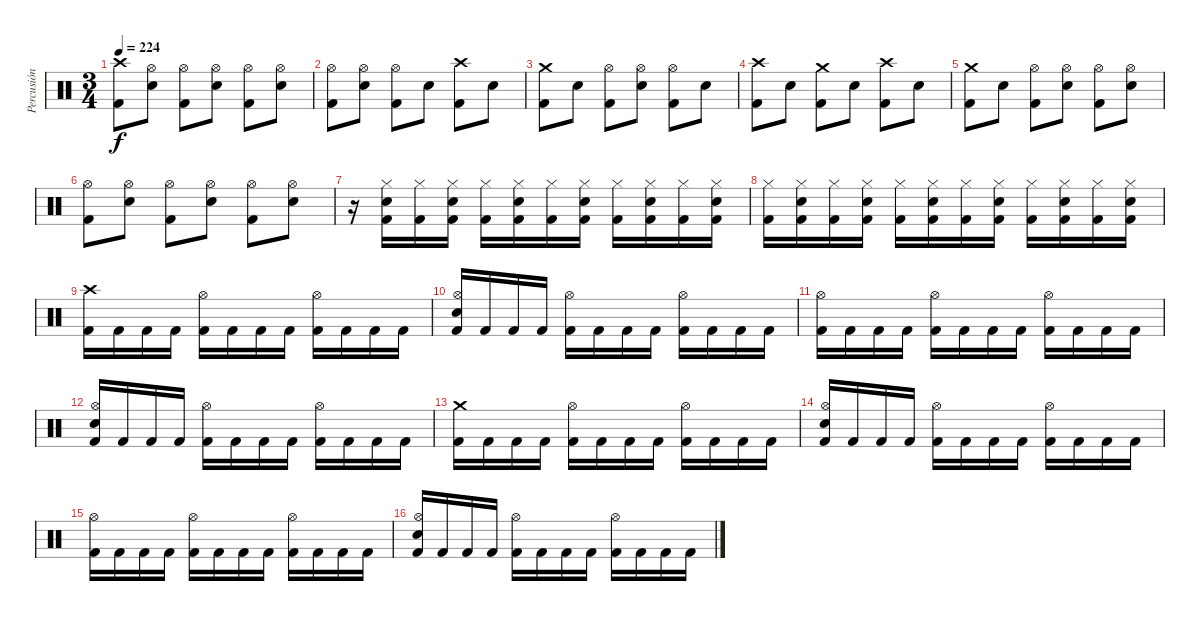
\track ("Percusión" "Percusión") {instrument percussion}
\staff {score}
\articulation defaults
\ts (3 4)
\tempo 224
\clef neutral
\ks c
("Crash high (hit)" "Kick (hit) 2").8{dy f} ("Hi-Hat (open)" "Electric Snare (hit)").8 ("Hi-Hat (open)" "Kick (hit) 2").8 ("Hi-Hat (open)" "Electric Snare (hit)").8 ("Hi-Hat (open)" "Kick (hit) 2").8 ("Hi-Hat (open)" "Electric Snare (hit)").8 |
("Hi-Hat (open)" "Kick (hit) 2").8 ("Hi-Hat (open)" "Electric Snare (hit)").8 ("Hi-Hat (open)" "Kick (hit) 2").8 "Electric Snare (hit)".8 ("Crash high (hit)" "Kick (hit) 2").8 "Electric Snare (hit)".8 |
("Crash medium (hit)" "Kick (hit) 2").8 "Electric Snare (hit)".8 ("Hi-Hat (open)" "Kick (hit) 2").8 ("Hi-Hat (open)" "Electric Snare (hit)").8 ("Hi-Hat (open)" "Kick (hit) 2").8 "Electric Snare (hit)".8 |
("Crash high (hit)" "Kick (hit) 2").8 "Electric Snare (hit)".8 ("Crash medium (hit)" "Kick (hit) 2").8 "Electric Snare (hit)".8 ("Crash high (hit)" "Kick (hit) 2").8 "Electric Snare (hit)".8 |
("Crash medium (hit)" "Kick (hit) 2").8 "Electric Snare (hit)".8 ("Hi-Hat (open)" "Kick (hit) 2").8 ("Hi-Hat (open)" "Electric Snare (hit)").8 ("Hi-Hat (open)" "Kick (hit) 2").8 ("Hi-Hat (open)" "Electric Snare (hit)").8 |
("Hi-Hat (open)" "Kick (hit) 2").8 ("Hi-Hat (open)" "Electric Snare (hit)").8 ("Hi-Hat (open)" "Kick (hit) 2").8 ("Hi-Hat (open)" "Electric Snare (hit)").8 ("Hi-Hat (open)" "Kick (hit) 2").8 ("Hi-Hat (open)" "Electric Snare (hit)").8 |
r.16 ("Hi-Hat (closed)" "Electric Snare (hit)" "Kick (hit) 2").16 ("Hi-Hat (closed)" "Kick (hit) 2").16 ("Hi-Hat (closed)" "Electric Snare (hit)" "Kick (hit) 2").16 ("Hi-Hat (closed)" "Kick (hit) 2").16 ("Hi-Hat (closed)" "Electric Snare (hit)" "Kick (hit) 2").16 ("Hi-Hat (closed)" "Kick (hit) 2").16 ("Hi-Hat (closed)" "Electric Snare (hit)" "Kick (hit) 2").16 ("Hi-Hat (closed)" "Kick (hit) 2").16 ("Hi-Hat (closed)" "Electric Snare (hit)" "Kick (hit) 2").16 ("Hi-Hat (closed)" "Kick (hit) 2").16 ("Hi-Hat (closed)" "Electric Snare (hit)" "Kick (hit) 2").16 |
("Hi-Hat (closed)" "Kick (hit) 2").16 ("Hi-Hat (closed)" "Electric Snare (hit)" "Kick (hit) 2").16 ("Hi-Hat (closed)" "Kick (hit) 2").16 ("Hi-Hat (closed)" "Electric Snare (hit)" "Kick (hit) 2").16 ("Hi-Hat (closed)" "Kick (hit) 2").16 ("Hi-Hat (closed)" "Electric Snare (hit)" "Kick (hit) 2").16 ("Hi-Hat (closed)" "Kick (hit) 2").16 ("Hi-Hat (closed)" "Electric Snare (hit)" "Kick (hit) 2").16 ("Hi-Hat (closed)" "Kick (hit) 2").16 ("Hi-Hat (closed)" "Electric Snare (hit)" "Kick (hit) 2").16 ("Hi-Hat (closed)" "Kick (hit) 2").16 ("Hi-Hat (closed)" "Electric Snare (hit)" "Kick (hit) 2").16 |
("Crash high (hit)" "Kick (hit) 2").16 "Kick (hit) 2".16 "Kick (hit) 2".16 "Kick (hit) 2".16 ("Hi-Hat (open)" "Kick (hit) 2").16 "Kick (hit) 2".16 "Kick (hit) 2".16 "Kick (hit) 2".16 ("Hi-Hat (open)" "Kick (hit) 2").16 "Kick (hit) 2".16 "Kick (hit) 2".16 "Kick (hit) 2".16 |
("Hi-Hat (open)" "Electric Snare (hit)" "Kick (hit) 2").16 "Kick (hit) 2".16 "Kick (hit) 2".16 "Kick (hit) 2".16 ("Hi-Hat (open)" "Kick (hit) 2").16 "Kick (hit) 2".16 "Kick (hit) 2".16 "Kick (hit) 2".16 ("Hi-Hat (open)" "Kick (hit) 2").16 "Kick (hit) 2".16 "Kick (hit) 2".16 "Kick (hit) 2".16 |
("Hi-Hat (open)" "Kick (hit) 2").16 "Kick (hit) 2".16 "Kick (hit) 2".16 "Kick (hit) 2".16 ("Hi-Hat (open)" "Kick (hit) 2").16 "Kick (hit) 2".16 "Kick (hit) 2".16 "Kick (hit) 2".16 ("Hi-Hat (open)" "Kick (hit) 2").16 "Kick (hit) 2".16 "Kick (hit) 2".16 "Kick (hit) 2".16 |
("Hi-Hat (open)" "Electric Snare (hit)" "Kick (hit) 2").16 "Kick (hit) 2".16 "Kick (hit) 2".16 "Kick (hit) 2".16 ("Hi-Hat (open)" "Kick (hit) 2").16 "Kick (hit) 2".16 "Kick (hit) 2".16 "Kick (hit) 2".16 ("Hi-Hat (open)" "Kick (hit) 2").16 "Kick (hit) 2".16 "Kick (hit) 2".16 "Kick (hit) 2".16 |
("Crash medium (hit)" "Kick (hit) 2").16 "Kick (hit) 2".16 "Kick (hit) 2".16 "Kick (hit) 2".16 ("Hi-Hat (open)" "Kick (hit) 2").16 "Kick (hit) 2".16 "Kick (hit) 2".16 "Kick (hit) 2".16 ("Hi-Hat (open)" "Kick (hit) 2").16 "Kick (hit) 2".16 "Kick (hit) 2".16 "Kick (hit) 2".16 |
("Hi-Hat (open)" "Electric Snare (hit)" "Kick (hit) 2").16 "Kick (hit) 2".16 "Kick (hit) 2".16 "Kick (hit) 2".16 ("Hi-Hat (open)" "Kick (hit) 2").16 "Kick (hit) 2".16 "Kick (hit) 2".16 "Kick (hit) 2".16 ("Hi-Hat (open)" "Kick (hit) 2").16 "Kick (hit) 2".16 "Kick (hit) 2".16 "Kick (hit) 2".16 |
("Hi-Hat (open)" "Kick (hit) 2").16 "Kick (hit) 2".16 "Kick (hit) 2".16 "Kick (hit) 2".16 ("Hi-Hat (open)" "Kick (hit) 2").16 "Kick (hit) 2".16 "Kick (hit) 2".16 "Kick (hit) 2".16 ("Hi-Hat (open)" "Kick (hit) 2").16 "Kick (hit) 2".16 "Kick (hit) 2".16 "Kick (hit) 2".16 |
("Hi-Hat (open)" "Electric Snare (hit)" "Kick (hit) 2").16 "Kick (hit) 2".16 "Kick (hit) 2".16 "Kick (hit) 2".16 ("Hi-Hat (open)" "Kick (hit) 2").16 "Kick (hit) 2".16 "Kick (hit) 2".16 "Kick (hit) 2".16 ("Hi-Hat (open)" "Kick (hit) 2").16 "Kick (hit) 2".16 "Kick (hit) 2".16 "Kick (hit) 2".16
